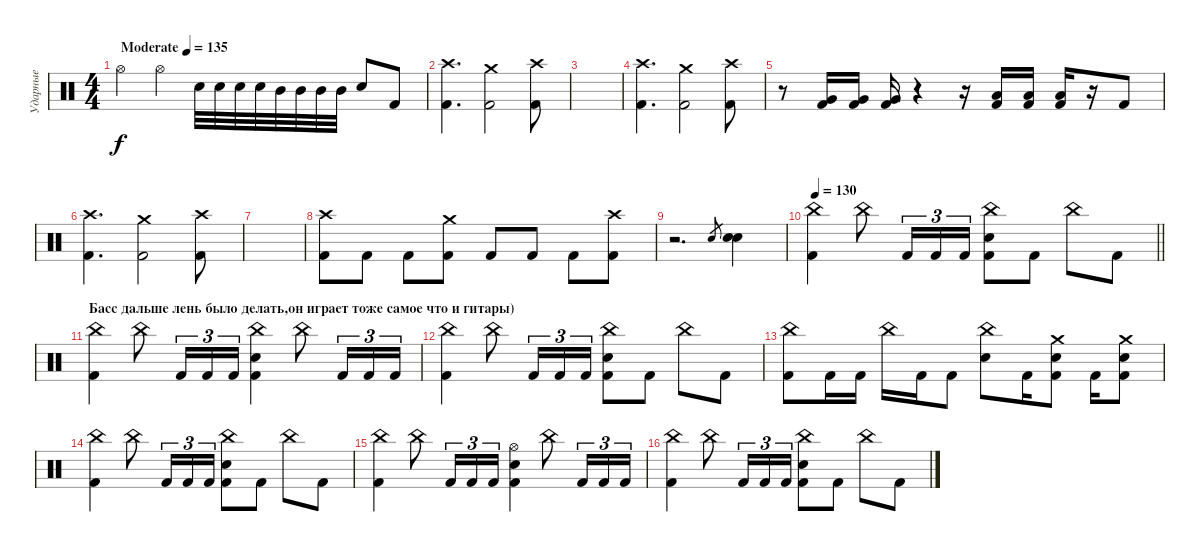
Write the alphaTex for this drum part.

\track ("Ударные" "Ударные") {instrument percussion}
\staff {score}
\articulation defaults
\ts (4 4)
\tempo (135 "Moderate")
\tempo 131
\tempo (135 "Moderate")
\clef neutral
\ks c "Hi-Hat (open)".4{dy f} "Hi-Hat (open)".4 "Electric Snare (hit)".32 "Electric Snare (hit)".32 "Electric Snare (hit)".32 "Electric Snare (hit)".32 "Mid Tom (hit)".32 "Mid Tom (hit)".32 "Mid Tom (hit)".32 "Mid Tom (hit)".32 "Electric Snare (hit)".8 "Kick (hit) 2".8
|
("Crash high (hit)" "Kick (hit) 2").4{d} ("Crash medium (hit)" "Kick (hit) 2").2 ("Crash high (hit)" "Kick (hit) 2").8 |
|
("Crash high (hit)" "Kick (hit) 2").4{d} ("Crash medium (hit)" "Kick (hit) 2").2 ("Crash high (hit)" "Kick (hit) 2").8 |
r.8 ("Very Low Tom (hit)" "Kick (hit) 2").16 ("Very Low Tom (hit)" "Kick (hit) 2").16 ("Very Low Tom (hit)" "Kick (hit) 2").16 r.4 r.16 ("Low Floor Tom (hit)" "Kick (hit) 2").16 ("Low Floor Tom (hit)" "Kick (hit) 2").16 ("Low Floor Tom (hit)" "Kick (hit) 2").16 r.16 "Kick (hit) 2".8 |
("Crash high (hit)" "Kick (hit) 2").4{d} ("Crash medium (hit)" "Kick (hit) 2").2 ("Crash high (hit)" "Kick (hit) 2").8 |
|
("Crash high (hit)" "Kick (hit) 2").8 "Kick (hit) 2".8 "Kick (hit) 2".8 ("Crash medium (hit)" "Kick (hit) 2").8 "Kick (hit) 2".8 "Kick (hit) 2".8 "Kick (hit) 2".8 ("Crash high (hit)" "Kick (hit) 2").8 |
r.2{d} "Electric Snare (hit)"{h}.8{gr} ("Electric Snare (hit)" "Electric Snare (hit)").4 |
\tempo 130
\barLineRight lightlight
("China (hit)" "Kick (hit) 2").4 "China (hit)".8 "Kick (hit) 2".16{tu (3 2)} "Kick (hit) 2".16{tu (3 2)} "Kick (hit) 2".16{tu (3 2)} ("China (hit)" "Electric Snare (hit)" "Kick (hit) 2").8 "Kick (hit) 2".8 "China (hit)".8 "Kick (hit) 2".8 |
\section ("" "Басс дальше лень было делать,он играет тоже самое что и гитары)")
("China (hit)" "Kick (hit) 2").4 "China (hit)".8 "Kick (hit) 2".16{tu (3 2)} "Kick (hit) 2".16{tu (3 2)} "Kick (hit) 2".16{tu (3 2)} ("China (hit)" "Electric Snare (hit)" "Kick (hit) 2").4 "China (hit)".8 "Kick (hit) 2".16{tu (3 2)} "Kick (hit) 2".16{tu (3 2)} "Kick (hit) 2".16{tu (3 2)} |
("China (hit)" "Kick (hit) 2").4 "China (hit)".8 "Kick (hit) 2".16{tu (3 2)} "Kick (hit) 2".16{tu (3 2)} "Kick (hit) 2".16{tu (3 2)} ("China (hit)" "Electric Snare (hit)" "Kick (hit) 2").8 "Kick (hit) 2".8 "China (hit)".8 "Kick (hit) 2".8 |
("China (hit)" "Kick (hit) 2").8 "Kick (hit) 2".16 "Kick (hit) 2".16 "China (hit)".16 "Kick (hit) 2".16 "Kick (hit) 2".8 ("China (hit)" "Electric Snare (hit)").8 "Kick (hit) 2".16 ("Crash medium (hit)" "Electric Snare (hit)" "Kick (hit) 2").8 "Kick (hit) 2".16 ("Crash medium (hit)" "Electric Snare (hit)" "Kick (hit) 2").8 |
("China (hit)" "Kick (hit) 2").4 "China (hit)".8 "Kick (hit) 2".16{tu (3 2)} "Kick (hit) 2".16{tu (3 2)} "Kick (hit) 2".16{tu (3 2)} ("China (hit)" "Electric Snare (hit)" "Kick (hit) 2").8 "Kick (hit) 2".8 "China (hit)".8 "Kick (hit) 2".8 |
("China (hit)" "Kick (hit) 2").4 "China (hit)".8 "Kick (hit) 2".16{tu (3 2)} "Kick (hit) 2".16{tu (3 2)} "Kick (hit) 2".16{tu (3 2)} ("Hi-Hat (open)" "Electric Snare (hit)" "Kick (hit) 2").4 "China (hit)".8 "Kick (hit) 2".16{tu (3 2)} "Kick (hit) 2".16{tu (3 2)} "Kick (hit) 2".16{tu (3 2)} |
("China (hit)" "Kick (hit) 2").4 "China (hit)".8 "Kick (hit) 2".16{tu (3 2)} "Kick (hit) 2".16{tu (3 2)} "Kick (hit) 2".16{tu (3 2)} ("China (hit)" "Electric Snare (hit)" "Kick (hit) 2").8 "Kick (hit) 2".8 "China (hit)".8 "Kick (hit) 2".8
